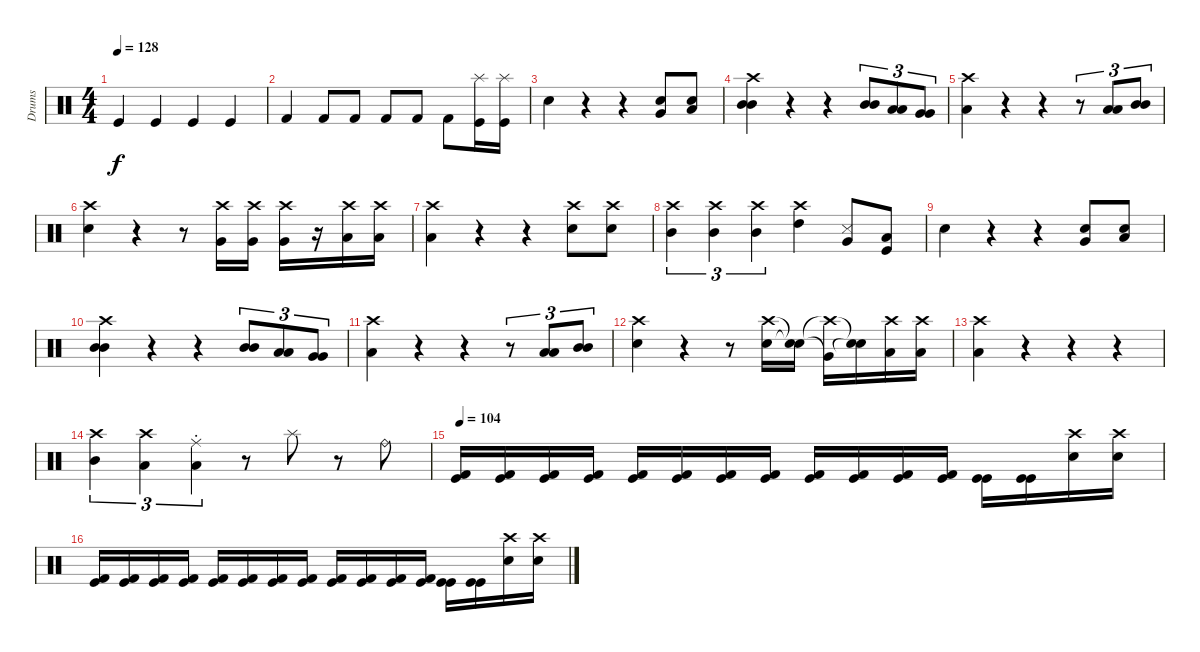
\track ("Drums" "Drums") {instrument percussion}
\staff {score}
\articulation defaults
\ts (4 4)
\tempo 128
\clef neutral
\ks c "Kick (hit)".4{dy f} "Kick (hit)".4 "Kick (hit)".4 "Kick (hit)".4
|
"Kick (hit) 2".4 "Kick (hit) 2".8 "Kick (hit) 2".8 "Kick (hit) 2".8 "Kick (hit) 2".8 "Kick (hit) 2".8 ("Kick (hit)" "Splash (hit)").16 ("Kick (hit)" "Splash (hit)").16 |
"Electric Snare (hit)".4 r.4 r.4 ("Electric Snare (hit)" "Very Low Tom (hit)").8 ("Electric Snare (hit)" "Low Tom (hit)").8 |
("Mid Tom (hit)" "Crash high (hit)" "Mid Tom (hit)").4 r.4 r.4 ("Mid Tom (hit)" "Mid Tom (hit)").8{tu (3 2)} ("Low Tom (hit)" "Low Tom (hit)").8{tu (3 2)} ("Very Low Tom (hit)" "Very Low Tom (hit)").8{tu (3 2)} |
("Crash high (hit)" "Low Tom (hit)").4 r.4 r.4 r.8{tu (3 2)} ("Low Tom (hit)" "Low Tom (hit)").8{tu (3 2)} ("Mid Tom (hit)" "Mid Tom (hit)").8{tu (3 2)} |
("Crash high (hit)" "Electric Snare (hit)").4 r.4 r.8 ("Crash high (hit)" "Very Low Tom (hit)").16 ("Crash high (hit)" "Very Low Tom (hit)").16 ("Crash high (hit)" "Very Low Tom (hit)").16 r.16 ("Crash high (hit)" "Low Tom (hit)").16 ("Crash high (hit)" "Low Tom (hit)").16 |
("Crash high (hit)" "Low Tom (hit)").4 r.4 r.4 ("Crash high (hit)" "Electric Snare (hit)").8 ("Crash high (hit)" "Electric Snare (hit)").8 |
("Mid Tom (hit)" "Crash high (hit)").4{tu (3 2)} ("Mid Tom (hit)" "Crash high (hit)").4{tu (3 2)} ("Mid Tom (hit)" "Crash high (hit)").4{tu (3 2)} ("High Tom (hit)" "Crash high (hit)").4 ("Very Low Tom (hit)" "Metronome (hit)").8 ("Low Tom (hit)" "Kick (hit)").8 |
"Electric Snare (hit)".4 r.4 r.4 ("Electric Snare (hit)" "Very Low Tom (hit)").8 ("Electric Snare (hit)" "Low Tom (hit)").8 |
("Mid Tom (hit)" "Crash high (hit)" "Mid Tom (hit)").4 r.4 r.4 ("Mid Tom (hit)" "Mid Tom (hit)").8{tu (3 2)} ("Low Tom (hit)" "Low Tom (hit)").8{tu (3 2)} ("Very Low Tom (hit)" "Very Low Tom (hit)").8{tu (3 2)} |
("Crash high (hit)" "Low Tom (hit)").4 r.4 r.4 r.8{tu (3 2)} ("Low Tom (hit)" "Low Tom (hit)").8{tu (3 2)} ("Mid Tom (hit)" "Mid Tom (hit)").8{tu (3 2)} |
("Crash high (hit)" "Electric Snare (hit)").4 r.4 r.8 ("Electric Snare (hit)" "Crash high (hit)").16 ("Electric Snare (hit)"{t} "Electric Snare (hit)"{t}).16 ("Crash high (hit)"{t} "Very Low Tom (hit)"{t}).16 ("Snare (hit)"{t} "Snare (hit)"{t}).16 ("Crash high (hit)" "Low Tom (hit)").16 ("Crash high (hit)" "Low Tom (hit)").16 |
("Crash high (hit)" "Low Tom (hit)").4 r.4 r.4 r.4 |
("Mid Tom (hit)" "Crash high (hit)").4{tu (3 2)} ("Low Tom (hit)" "Crash high (hit)").4{tu (3 2)} ("Low Floor Tom (hit)" "Ride (choke)").4{tu (3 2)} r.8 "Splash (hit)".8 r.8 "Ride (bell)".8 |
\tempo 104
("Kick (hit) 2" "Kick (hit)").16 ("Kick (hit) 2" "Kick (hit)").16 ("Kick (hit) 2" "Kick (hit)").16 ("Kick (hit) 2" "Kick (hit)").16 ("Kick (hit) 2" "Kick (hit)").16 ("Kick (hit) 2" "Kick (hit)").16 ("Kick (hit) 2" "Kick (hit)").16 ("Kick (hit) 2" "Kick (hit)").16 ("Kick (hit) 2" "Kick (hit)").16 ("Kick (hit) 2" "Kick (hit)").16 ("Kick (hit) 2" "Kick (hit)").16 ("Kick (hit) 2" "Kick (hit)").16 ("Kick (hit)" "Kick (hit)").16 ("Kick (hit)" "Kick (hit)").16 ("Snare (hit) 2" "Crash high (hit)").16 ("Snare (hit) 2" "Crash high (hit)").16 |
("Kick (hit) 2" "Kick (hit)").16 ("Kick (hit) 2" "Kick (hit)").16 ("Kick (hit) 2" "Kick (hit)").16 ("Kick (hit) 2" "Kick (hit)").16 ("Kick (hit) 2" "Kick (hit)").16 ("Kick (hit) 2" "Kick (hit)").16 ("Kick (hit) 2" "Kick (hit)").16 ("Kick (hit) 2" "Kick (hit)").16 ("Kick (hit) 2" "Kick (hit)").16 ("Kick (hit) 2" "Kick (hit)").16 ("Kick (hit) 2" "Kick (hit)").16 ("Kick (hit) 2" "Kick (hit)").16 ("Kick (hit)" "Kick (hit)").16 ("Kick (hit)" "Kick (hit)").16 ("Snare (hit) 2" "Crash high (hit)").16 ("Snare (hit) 2" "Crash high (hit)").16
